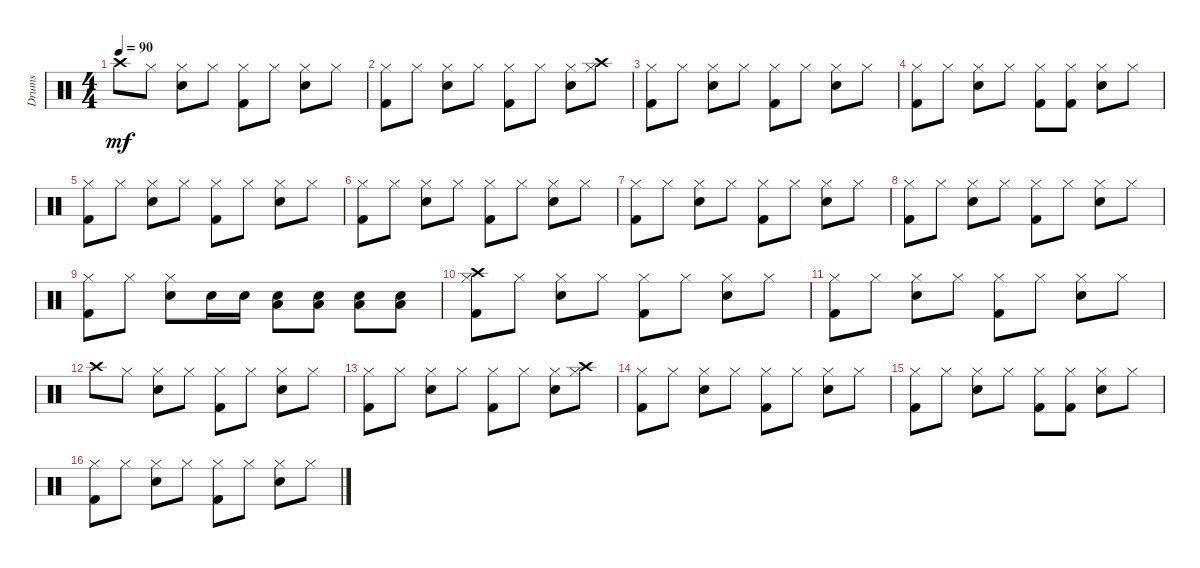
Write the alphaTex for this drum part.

\track ("Drums" "Drums") {instrument percussion}
\staff {score}
\articulation defaults
\ts (4 4)
\tempo 90
\clef neutral
\ks c "Crash high (hit)".8{dy mf} "Hi-Hat (closed)".8
("Hi-Hat (closed)" "Snare (hit) 2").8 "Hi-Hat (closed)".8 ("Hi-Hat (closed)" "Kick (hit) 2").8 "Hi-Hat (closed)".8 ("Hi-Hat (closed)" "Snare (hit) 2").8 "Hi-Hat (closed)".8 |
("Hi-Hat (closed)" "Kick (hit) 2").8 "Hi-Hat (closed)".8 ("Hi-Hat (closed)" "Snare (hit) 2").8 "Hi-Hat (closed)".8 ("Hi-Hat (closed)" "Kick (hit) 2").8 "Hi-Hat (closed)".8 ("Hi-Hat (closed)" "Snare (hit) 2").8 ("Hi-Hat (closed)" "Crash high (hit)").8 |
("Hi-Hat (closed)" "Kick (hit) 2").8 "Hi-Hat (closed)".8 ("Hi-Hat (closed)" "Snare (hit) 2").8 "Hi-Hat (closed)".8 ("Hi-Hat (closed)" "Kick (hit) 2").8 "Hi-Hat (closed)".8 ("Hi-Hat (closed)" "Snare (hit) 2").8 "Hi-Hat (closed)".8 |
("Hi-Hat (closed)" "Kick (hit) 2").8 "Hi-Hat (closed)".8 ("Hi-Hat (closed)" "Snare (hit) 2").8 "Hi-Hat (closed)".8 ("Hi-Hat (closed)" "Kick (hit) 2").8 ("Hi-Hat (closed)" "Kick (hit) 2").8 ("Hi-Hat (closed)" "Snare (hit) 2").8 "Hi-Hat (closed)".8 |
("Hi-Hat (closed)" "Kick (hit) 2").8 "Hi-Hat (closed)".8 ("Hi-Hat (closed)" "Snare (hit) 2").8 "Hi-Hat (closed)".8 ("Hi-Hat (closed)" "Kick (hit) 2").8 "Hi-Hat (closed)".8 ("Hi-Hat (closed)" "Snare (hit) 2").8 "Hi-Hat (closed)".8 |
("Hi-Hat (closed)" "Kick (hit) 2").8 "Hi-Hat (closed)".8 ("Hi-Hat (closed)" "Snare (hit) 2").8 "Hi-Hat (closed)".8 ("Hi-Hat (closed)" "Kick (hit) 2").8 "Hi-Hat (closed)".8 ("Hi-Hat (closed)" "Snare (hit) 2").8 "Hi-Hat (closed)".8 |
("Hi-Hat (closed)" "Kick (hit) 2").8 "Hi-Hat (closed)".8 ("Hi-Hat (closed)" "Snare (hit) 2").8 "Hi-Hat (closed)".8 ("Hi-Hat (closed)" "Kick (hit) 2").8 "Hi-Hat (closed)".8 ("Hi-Hat (closed)" "Snare (hit) 2").8 "Hi-Hat (closed)".8 |
("Hi-Hat (closed)" "Kick (hit) 2").8 "Hi-Hat (closed)".8 ("Hi-Hat (closed)" "Snare (hit) 2").8 "Hi-Hat (closed)".8 ("Hi-Hat (closed)" "Kick (hit) 2").8 "Hi-Hat (closed)".8 ("Hi-Hat (closed)" "Snare (hit) 2").8 "Hi-Hat (closed)".8 |
("Hi-Hat (closed)" "Kick (hit) 2").8 "Hi-Hat (closed)".8 ("Hi-Hat (closed)" "Snare (hit) 2").8 "Snare (hit) 2".16 "Snare (hit) 2".16 ("Snare (hit) 2" "Low Floor Tom (hit)").8 ("Snare (hit) 2" "Low Floor Tom (hit)").8 ("Snare (hit) 2" "Low Floor Tom (hit)").8 ("Snare (hit) 2" "Low Floor Tom (hit)").8 |
("Hi-Hat (closed)" "Crash high (hit)" "Kick (hit) 2").8 "Hi-Hat (closed)".8 ("Hi-Hat (closed)" "Snare (hit) 2").8 "Hi-Hat (closed)".8 ("Hi-Hat (closed)" "Kick (hit) 2").8 "Hi-Hat (closed)".8 ("Hi-Hat (closed)" "Snare (hit) 2").8 "Hi-Hat (closed)".8 |
("Hi-Hat (closed)" "Kick (hit) 2").8 "Hi-Hat (closed)".8 ("Hi-Hat (closed)" "Snare (hit) 2").8 "Hi-Hat (closed)".8 ("Hi-Hat (closed)" "Kick (hit) 2").8 "Hi-Hat (closed)".8 ("Hi-Hat (closed)" "Snare (hit) 2").8 "Hi-Hat (closed)".8 |
"Crash high (hit)".8 "Hi-Hat (closed)".8 ("Hi-Hat (closed)" "Snare (hit) 2").8 "Hi-Hat (closed)".8 ("Hi-Hat (closed)" "Kick (hit) 2").8 "Hi-Hat (closed)".8 ("Hi-Hat (closed)" "Snare (hit) 2").8 "Hi-Hat (closed)".8 |
("Hi-Hat (closed)" "Kick (hit) 2").8 "Hi-Hat (closed)".8 ("Hi-Hat (closed)" "Snare (hit) 2").8 "Hi-Hat (closed)".8 ("Hi-Hat (closed)" "Kick (hit) 2").8 "Hi-Hat (closed)".8 ("Hi-Hat (closed)" "Snare (hit) 2").8 ("Hi-Hat (closed)" "Crash high (hit)").8 |
("Hi-Hat (closed)" "Kick (hit) 2").8 "Hi-Hat (closed)".8 ("Hi-Hat (closed)" "Snare (hit) 2").8 "Hi-Hat (closed)".8 ("Hi-Hat (closed)" "Kick (hit) 2").8 "Hi-Hat (closed)".8 ("Hi-Hat (closed)" "Snare (hit) 2").8 "Hi-Hat (closed)".8 |
("Hi-Hat (closed)" "Kick (hit) 2").8 "Hi-Hat (closed)".8 ("Hi-Hat (closed)" "Snare (hit) 2").8 "Hi-Hat (closed)".8 ("Hi-Hat (closed)" "Kick (hit) 2").8 ("Hi-Hat (closed)" "Kick (hit) 2").8 ("Hi-Hat (closed)" "Snare (hit) 2").8 "Hi-Hat (closed)".8 |
("Hi-Hat (closed)" "Kick (hit) 2").8 "Hi-Hat (closed)".8 ("Hi-Hat (closed)" "Snare (hit) 2").8 "Hi-Hat (closed)".8 ("Hi-Hat (closed)" "Kick (hit) 2").8 "Hi-Hat (closed)".8 ("Hi-Hat (closed)" "Snare (hit) 2").8 "Hi-Hat (closed)".8
